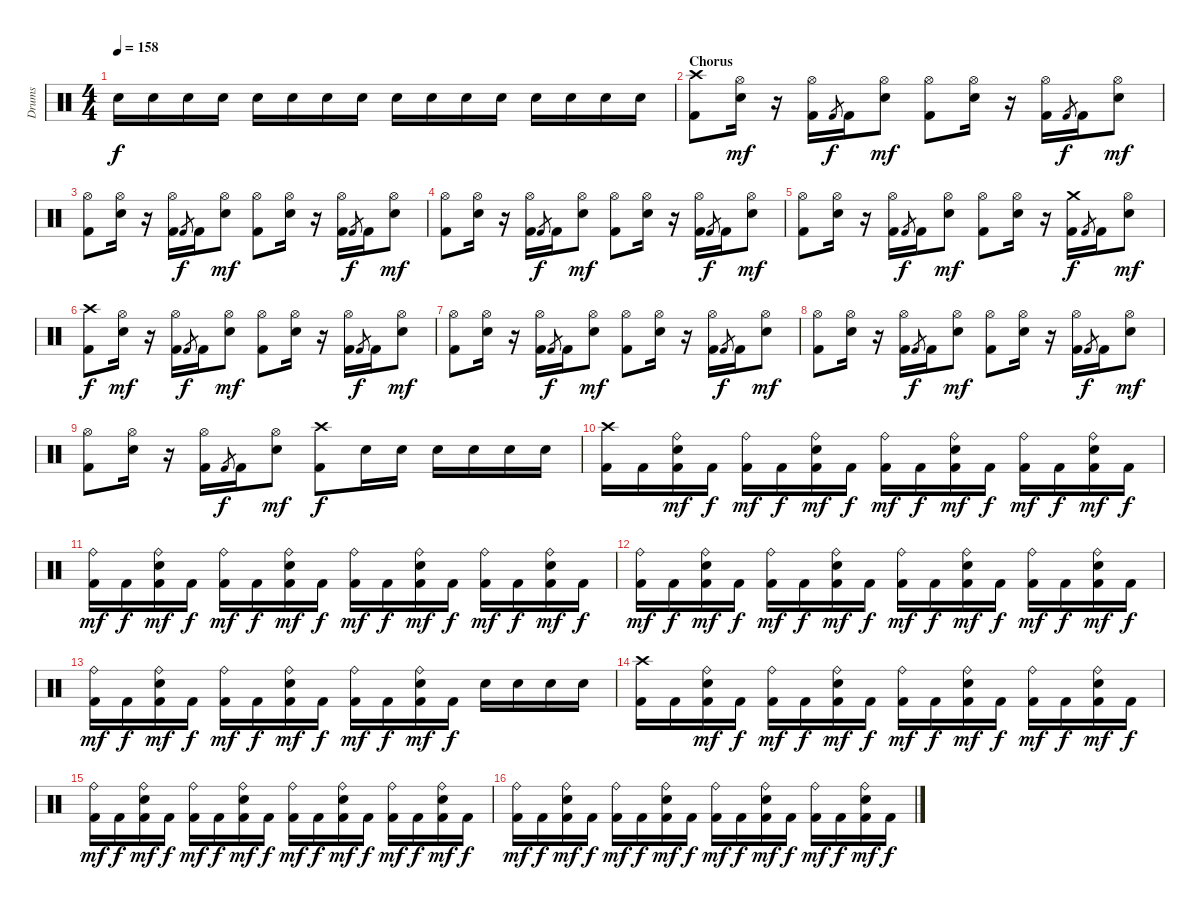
\track ("Drums" "Drums") {instrument percussion}
\staff {score}
\articulation defaults
\ts (4 4)
\tempo 158
\clef neutral
\ks c "Electric Snare (hit)".16{dy f} "Electric Snare (hit)".16 "Electric Snare (hit)".16 "Electric Snare (hit)".16 "Electric Snare (hit)".16 "Electric Snare (hit)".16 "Electric Snare (hit)".16 "Electric Snare (hit)".16 "Electric Snare (hit)".16 "Electric Snare (hit)".16 "Electric Snare (hit)".16 "Electric Snare (hit)".16 "Electric Snare (hit)".16 "Electric Snare (hit)".16 "Electric Snare (hit)".16 "Electric Snare (hit)".16
|
\section ("" "Chorus")
("Crash high (hit)" "Kick (hit) 2").8 ("Hi-Hat (open)" "Electric Snare (hit)").16{dy mf} r.16 ("Hi-Hat (open)" "Kick (hit) 2").16 "Kick (hit) 2".8{gr dy f} "Kick (hit) 2".16 ("Hi-Hat (open)" "Electric Snare (hit)").8{dy mf} ("Hi-Hat (open)" "Kick (hit) 2").8 ("Hi-Hat (open)" "Electric Snare (hit)").16 r.16 ("Hi-Hat (open)" "Kick (hit) 2").16 "Kick (hit) 2".8{gr dy f} "Kick (hit) 2".16 ("Hi-Hat (open)" "Electric Snare (hit)").8{dy mf} |
("Hi-Hat (open)" "Kick (hit) 2").8 ("Hi-Hat (open)" "Electric Snare (hit)").16 r.16 ("Hi-Hat (open)" "Kick (hit) 2").16 "Kick (hit) 2".8{gr dy f} "Kick (hit) 2".16 ("Hi-Hat (open)" "Electric Snare (hit)").8{dy mf} ("Hi-Hat (open)" "Kick (hit) 2").8 ("Hi-Hat (open)" "Electric Snare (hit)").16 r.16 ("Hi-Hat (open)" "Kick (hit) 2").16 "Kick (hit) 2".8{gr dy f} "Kick (hit) 2".16 ("Hi-Hat (open)" "Electric Snare (hit)").8{dy mf} |
("Hi-Hat (open)" "Kick (hit) 2").8 ("Hi-Hat (open)" "Electric Snare (hit)").16 r.16 ("Hi-Hat (open)" "Kick (hit) 2").16 "Kick (hit) 2".8{gr dy f} "Kick (hit) 2".16 ("Hi-Hat (open)" "Electric Snare (hit)").8{dy mf} ("Hi-Hat (open)" "Kick (hit) 2").8 ("Hi-Hat (open)" "Electric Snare (hit)").16 r.16 ("Hi-Hat (open)" "Kick (hit) 2").16 "Kick (hit) 2".8{gr dy f} "Kick (hit) 2".16 ("Hi-Hat (open)" "Electric Snare (hit)").8{dy mf} |
("Hi-Hat (open)" "Kick (hit) 2").8 ("Hi-Hat (open)" "Electric Snare (hit)").16 r.16 ("Hi-Hat (open)" "Kick (hit) 2").16 "Kick (hit) 2".8{gr dy f} "Kick (hit) 2".16 ("Hi-Hat (open)" "Electric Snare (hit)").8{dy mf} ("Hi-Hat (open)" "Kick (hit) 2").8 ("Hi-Hat (open)" "Electric Snare (hit)").16 r.16 ("Crash medium (hit)" "Kick (hit) 2").16{dy f} "Kick (hit) 2".8{gr} "Kick (hit) 2".16 ("Hi-Hat (open)" "Electric Snare (hit)").8{dy mf} |
("Crash high (hit)" "Kick (hit) 2").8{dy f} ("Hi-Hat (open)" "Electric Snare (hit)").16{dy mf} r.16 ("Hi-Hat (open)" "Kick (hit) 2").16 "Kick (hit) 2".8{gr dy f} "Kick (hit) 2".16 ("Hi-Hat (open)" "Electric Snare (hit)").8{dy mf} ("Hi-Hat (open)" "Kick (hit) 2").8 ("Hi-Hat (open)" "Electric Snare (hit)").16 r.16 ("Hi-Hat (open)" "Kick (hit) 2").16 "Kick (hit) 2".8{gr dy f} "Kick (hit) 2".16 ("Hi-Hat (open)" "Electric Snare (hit)").8{dy mf} |
("Hi-Hat (open)" "Kick (hit) 2").8 ("Hi-Hat (open)" "Electric Snare (hit)").16 r.16 ("Hi-Hat (open)" "Kick (hit) 2").16 "Kick (hit) 2".8{gr dy f} "Kick (hit) 2".16 ("Hi-Hat (open)" "Electric Snare (hit)").8{dy mf} ("Hi-Hat (open)" "Kick (hit) 2").8 ("Hi-Hat (open)" "Electric Snare (hit)").16 r.16 ("Hi-Hat (open)" "Kick (hit) 2").16 "Kick (hit) 2".8{gr dy f} "Kick (hit) 2".16 ("Hi-Hat (open)" "Electric Snare (hit)").8{dy mf} |
("Hi-Hat (open)" "Kick (hit) 2").8 ("Hi-Hat (open)" "Electric Snare (hit)").16 r.16 ("Hi-Hat (open)" "Kick (hit) 2").16 "Kick (hit) 2".8{gr dy f} "Kick (hit) 2".16 ("Hi-Hat (open)" "Electric Snare (hit)").8{dy mf} ("Hi-Hat (open)" "Kick (hit) 2").8 ("Hi-Hat (open)" "Electric Snare (hit)").16 r.16 ("Hi-Hat (open)" "Kick (hit) 2").16 "Kick (hit) 2".8{gr dy f} "Kick (hit) 2".16 ("Hi-Hat (open)" "Electric Snare (hit)").8{dy mf} |
("Hi-Hat (open)" "Kick (hit) 2").8 ("Hi-Hat (open)" "Electric Snare (hit)").16 r.16 ("Hi-Hat (open)" "Kick (hit) 2").16 "Kick (hit) 2".8{gr dy f} "Kick (hit) 2".16 ("Hi-Hat (open)" "Electric Snare (hit)").8{dy mf} ("Crash high (hit)" "Kick (hit) 2").8{dy f} "Electric Snare (hit)".16 "Electric Snare (hit)".16 "Electric Snare (hit)".16 "Electric Snare (hit)".16 "Electric Snare (hit)".16 "Electric Snare (hit)".16 |
("Crash high (hit)" "Kick (hit) 2").16 "Kick (hit) 2".16 ("Ride (bell)" "Electric Snare (hit)" "Kick (hit) 2").16{dy mf} "Kick (hit) 2".16{dy f} ("Ride (bell)" "Kick (hit) 2").16{dy mf} "Kick (hit) 2".16{dy f} ("Ride (bell)" "Electric Snare (hit)" "Kick (hit) 2").16{dy mf} "Kick (hit) 2".16{dy f} ("Ride (bell)" "Kick (hit) 2").16{dy mf} "Kick (hit) 2".16{dy f} ("Ride (bell)" "Electric Snare (hit)" "Kick (hit) 2").16{dy mf} "Kick (hit) 2".16{dy f} ("Ride (bell)" "Kick (hit) 2").16{dy mf} "Kick (hit) 2".16{dy f} ("Ride (bell)" "Electric Snare (hit)" "Kick (hit) 2").16{dy mf} "Kick (hit) 2".16{dy f} |
("Ride (bell)" "Kick (hit) 2").16{dy mf} "Kick (hit) 2".16{dy f} ("Ride (bell)" "Electric Snare (hit)" "Kick (hit) 2").16{dy mf} "Kick (hit) 2".16{dy f} ("Ride (bell)" "Kick (hit) 2").16{dy mf} "Kick (hit) 2".16{dy f} ("Ride (bell)" "Electric Snare (hit)" "Kick (hit) 2").16{dy mf} "Kick (hit) 2".16{dy f} ("Ride (bell)" "Kick (hit) 2").16{dy mf} "Kick (hit) 2".16{dy f} ("Ride (bell)" "Electric Snare (hit)" "Kick (hit) 2").16{dy mf} "Kick (hit) 2".16{dy f} ("Ride (bell)" "Kick (hit) 2").16{dy mf} "Kick (hit) 2".16{dy f} ("Ride (bell)" "Electric Snare (hit)" "Kick (hit) 2").16{dy mf} "Kick (hit) 2".16{dy f} |
("Ride (bell)" "Kick (hit) 2").16{dy mf} "Kick (hit) 2".16{dy f} ("Ride (bell)" "Electric Snare (hit)" "Kick (hit) 2").16{dy mf} "Kick (hit) 2".16{dy f} ("Ride (bell)" "Kick (hit) 2").16{dy mf} "Kick (hit) 2".16{dy f} ("Ride (bell)" "Electric Snare (hit)" "Kick (hit) 2").16{dy mf} "Kick (hit) 2".16{dy f} ("Ride (bell)" "Kick (hit) 2").16{dy mf} "Kick (hit) 2".16{dy f} ("Ride (bell)" "Electric Snare (hit)" "Kick (hit) 2").16{dy mf} "Kick (hit) 2".16{dy f} ("Ride (bell)" "Kick (hit) 2").16{dy mf} "Kick (hit) 2".16{dy f} ("Ride (bell)" "Electric Snare (hit)" "Kick (hit) 2").16{dy mf} "Kick (hit) 2".16{dy f} |
("Ride (bell)" "Kick (hit) 2").16{dy mf} "Kick (hit) 2".16{dy f} ("Ride (bell)" "Electric Snare (hit)" "Kick (hit) 2").16{dy mf} "Kick (hit) 2".16{dy f} ("Ride (bell)" "Kick (hit) 2").16{dy mf} "Kick (hit) 2".16{dy f} ("Ride (bell)" "Electric Snare (hit)" "Kick (hit) 2").16{dy mf} "Kick (hit) 2".16{dy f} ("Ride (bell)" "Kick (hit) 2").16{dy mf} "Kick (hit) 2".16{dy f} ("Ride (bell)" "Electric Snare (hit)" "Kick (hit) 2").16{dy mf} "Kick (hit) 2".16{dy f} "Electric Snare (hit)".16 "Electric Snare (hit)".16 "Electric Snare (hit)".16 "Electric Snare (hit)".16 |
("Crash high (hit)" "Kick (hit) 2").16 "Kick (hit) 2".16 ("Ride (bell)" "Electric Snare (hit)" "Kick (hit) 2").16{dy mf} "Kick (hit) 2".16{dy f} ("Ride (bell)" "Kick (hit) 2").16{dy mf} "Kick (hit) 2".16{dy f} ("Ride (bell)" "Electric Snare (hit)" "Kick (hit) 2").16{dy mf} "Kick (hit) 2".16{dy f} ("Ride (bell)" "Kick (hit) 2").16{dy mf} "Kick (hit) 2".16{dy f} ("Ride (bell)" "Electric Snare (hit)" "Kick (hit) 2").16{dy mf} "Kick (hit) 2".16{dy f} ("Ride (bell)" "Kick (hit) 2").16{dy mf} "Kick (hit) 2".16{dy f} ("Ride (bell)" "Electric Snare (hit)" "Kick (hit) 2").16{dy mf} "Kick (hit) 2".16{dy f} |
("Ride (bell)" "Kick (hit) 2").16{dy mf} "Kick (hit) 2".16{dy f} ("Ride (bell)" "Electric Snare (hit)" "Kick (hit) 2").16{dy mf} "Kick (hit) 2".16{dy f} ("Ride (bell)" "Kick (hit) 2").16{dy mf} "Kick (hit) 2".16{dy f} ("Ride (bell)" "Electric Snare (hit)" "Kick (hit) 2").16{dy mf} "Kick (hit) 2".16{dy f} ("Ride (bell)" "Kick (hit) 2").16{dy mf} "Kick (hit) 2".16{dy f} ("Ride (bell)" "Electric Snare (hit)" "Kick (hit) 2").16{dy mf} "Kick (hit) 2".16{dy f} ("Ride (bell)" "Kick (hit) 2").16{dy mf} "Kick (hit) 2".16{dy f} ("Ride (bell)" "Electric Snare (hit)" "Kick (hit) 2").16{dy mf} "Kick (hit) 2".16{dy f} |
("Ride (bell)" "Kick (hit) 2").16{dy mf} "Kick (hit) 2".16{dy f} ("Ride (bell)" "Electric Snare (hit)" "Kick (hit) 2").16{dy mf} "Kick (hit) 2".16{dy f} ("Ride (bell)" "Kick (hit) 2").16{dy mf} "Kick (hit) 2".16{dy f} ("Ride (bell)" "Electric Snare (hit)" "Kick (hit) 2").16{dy mf} "Kick (hit) 2".16{dy f} ("Ride (bell)" "Kick (hit) 2").16{dy mf} "Kick (hit) 2".16{dy f} ("Ride (bell)" "Electric Snare (hit)" "Kick (hit) 2").16{dy mf} "Kick (hit) 2".16{dy f} ("Ride (bell)" "Kick (hit) 2").16{dy mf} "Kick (hit) 2".16{dy f} ("Ride (bell)" "Electric Snare (hit)" "Kick (hit) 2").16{dy mf} "Kick (hit) 2".16{dy f}
